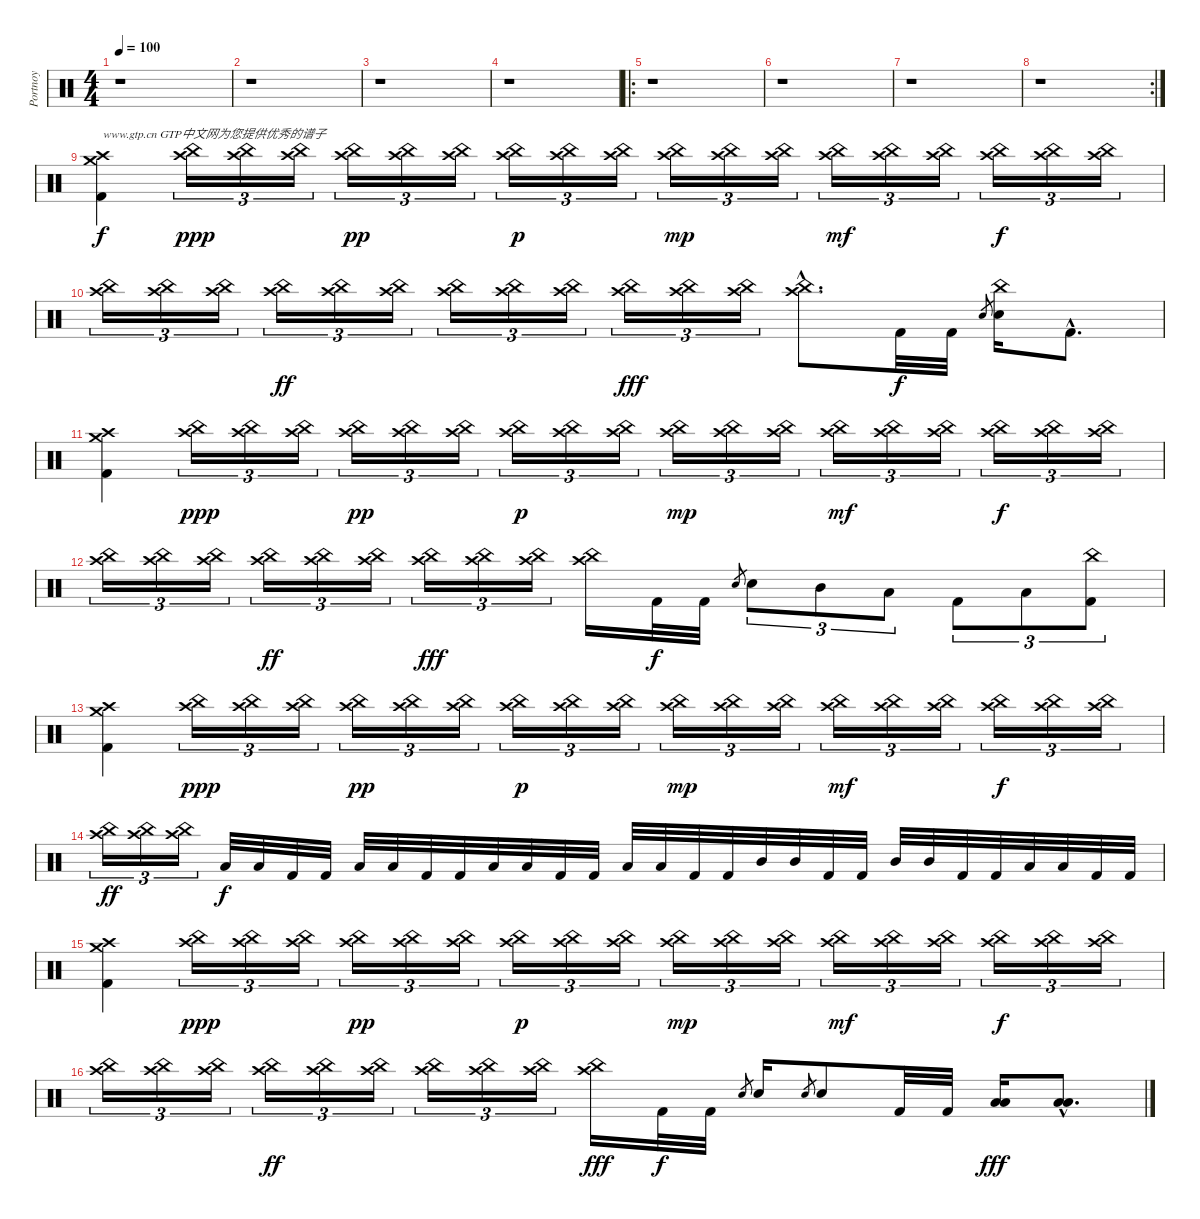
\track ("Portnoy" "Portnoy") {instrument percussion}
\staff {score}
\articulation defaults
\ts (4 4)
\tempo 100
\clef neutral
\ks c
r.1{dy f} |
r.1 |
r.1 |
r.1 |
\ro
r.1 |
r.1 |
r.1 |
\rc 2
r.1 |
("Crash high (hit)" "Crash medium (hit)" "Kick (hit) 2").4{txt "www.gtp.cn GTP中文网为您提供优秀的谱子"} ("Crash high (hit)" "China (hit)").16{tu (3 2) dy ppp} ("Crash high (hit)" "China (hit)").16{tu (3 2)} ("Crash high (hit)" "China (hit)").16{tu (3 2)} ("Crash high (hit)" "China (hit)").16{tu (3 2) dy pp} ("Crash high (hit)" "China (hit)").16{tu (3 2)} ("Crash high (hit)" "China (hit)").16{tu (3 2)} ("Crash high (hit)" "China (hit)").16{tu (3 2) dy p} ("Crash high (hit)" "China (hit)").16{tu (3 2)} ("Crash high (hit)" "China (hit)").16{tu (3 2)} ("Crash high (hit)" "China (hit)").16{tu (3 2) dy mp} ("Crash high (hit)" "China (hit)").16{tu (3 2)} ("Crash high (hit)" "China (hit)").16{tu (3 2)} ("Crash high (hit)" "China (hit)").16{tu (3 2) dy mf} ("Crash high (hit)" "China (hit)").16{tu (3 2)} ("Crash high (hit)" "China (hit)").16{tu (3 2)} ("Crash high (hit)" "China (hit)").16{tu (3 2) dy f} ("Crash high (hit)" "China (hit)").16{tu (3 2)} ("Crash high (hit)" "China (hit)").16{tu (3 2)} |
("Crash high (hit)" "China (hit)").16{tu (3 2)} ("Crash high (hit)" "China (hit)").16{tu (3 2)} ("Crash high (hit)" "China (hit)").16{tu (3 2)} ("Crash high (hit)" "China (hit)").16{tu (3 2) dy ff} ("Crash high (hit)" "China (hit)").16{tu (3 2)} ("Crash high (hit)" "China (hit)").16{tu (3 2)} ("Crash high (hit)" "China (hit)").16{tu (3 2)} ("Crash high (hit)" "China (hit)").16{tu (3 2)} ("Crash high (hit)" "China (hit)").16{tu (3 2)} ("Crash high (hit)" "China (hit)").16{tu (3 2) dy fff} ("Crash high (hit)" "China (hit)").16{tu (3 2)} ("Crash high (hit)" "China (hit)").16{tu (3 2)} ("Crash high (hit)"{hac} "China (hit)"{hac}).8{d} "Kick (hit) 2".32{dy f} "Kick (hit) 2".32 "Electric Snare (hit)".8{gr} ("China (hit)" "Electric Snare (hit)").16 "Kick (hit) 2"{hac}.8{d} |
("Crash high (hit)" "Crash medium (hit)" "Kick (hit) 2").4 ("Crash high (hit)" "China (hit)").16{tu (3 2) dy ppp} ("Crash high (hit)" "China (hit)").16{tu (3 2)} ("Crash high (hit)" "China (hit)").16{tu (3 2)} ("Crash high (hit)" "China (hit)").16{tu (3 2) dy pp} ("Crash high (hit)" "China (hit)").16{tu (3 2)} ("Crash high (hit)" "China (hit)").16{tu (3 2)} ("Crash high (hit)" "China (hit)").16{tu (3 2) dy p} ("Crash high (hit)" "China (hit)").16{tu (3 2)} ("Crash high (hit)" "China (hit)").16{tu (3 2)} ("Crash high (hit)" "China (hit)").16{tu (3 2) dy mp} ("Crash high (hit)" "China (hit)").16{tu (3 2)} ("Crash high (hit)" "China (hit)").16{tu (3 2)} ("Crash high (hit)" "China (hit)").16{tu (3 2) dy mf} ("Crash high (hit)" "China (hit)").16{tu (3 2)} ("Crash high (hit)" "China (hit)").16{tu (3 2)} ("Crash high (hit)" "China (hit)").16{tu (3 2) dy f} ("Crash high (hit)" "China (hit)").16{tu (3 2)} ("Crash high (hit)" "China (hit)").16{tu (3 2)} |
("Crash high (hit)" "China (hit)").16{tu (3 2)} ("Crash high (hit)" "China (hit)").16{tu (3 2)} ("Crash high (hit)" "China (hit)").16{tu (3 2)} ("Crash high (hit)" "China (hit)").16{tu (3 2) dy ff} ("Crash high (hit)" "China (hit)").16{tu (3 2)} ("Crash high (hit)" "China (hit)").16{tu (3 2)} ("Crash high (hit)" "China (hit)").16{tu (3 2) dy fff} ("Crash high (hit)" "China (hit)").16{tu (3 2)} ("Crash high (hit)" "China (hit)").16{tu (3 2)} ("Crash high (hit)" "China (hit)").16 "Kick (hit) 2".32{dy f} "Kick (hit) 2".32 "Electric Snare (hit)".8{gr} "Electric Snare (hit)".8{tu (3 2)} "Mid Tom (hit)".8{tu (3 2)} "Low Tom (hit)".8{tu (3 2)} "Kick (hit) 2".8{tu (3 2)} "Low Tom (hit)".8{tu (3 2)} ("China (hit)" "Kick (hit) 2").8{tu (3 2)} |
("Crash high (hit)" "Crash medium (hit)" "Kick (hit) 2").4 ("Crash high (hit)" "China (hit)").16{tu (3 2) dy ppp} ("Crash high (hit)" "China (hit)").16{tu (3 2)} ("Crash high (hit)" "China (hit)").16{tu (3 2)} ("Crash high (hit)" "China (hit)").16{tu (3 2) dy pp} ("Crash high (hit)" "China (hit)").16{tu (3 2)} ("Crash high (hit)" "China (hit)").16{tu (3 2)} ("Crash high (hit)" "China (hit)").16{tu (3 2) dy p} ("Crash high (hit)" "China (hit)").16{tu (3 2)} ("Crash high (hit)" "China (hit)").16{tu (3 2)} ("Crash high (hit)" "China (hit)").16{tu (3 2) dy mp} ("Crash high (hit)" "China (hit)").16{tu (3 2)} ("Crash high (hit)" "China (hit)").16{tu (3 2)} ("Crash high (hit)" "China (hit)").16{tu (3 2) dy mf} ("Crash high (hit)" "China (hit)").16{tu (3 2)} ("Crash high (hit)" "China (hit)").16{tu (3 2)} ("Crash high (hit)" "China (hit)").16{tu (3 2) dy f} ("Crash high (hit)" "China (hit)").16{tu (3 2)} ("Crash high (hit)" "China (hit)").16{tu (3 2)} |
("Crash high (hit)" "China (hit)").16{tu (3 2) dy ff} ("Crash high (hit)" "China (hit)").16{tu (3 2)} ("Crash high (hit)" "China (hit)").16{tu (3 2)} "Low Floor Tom (hit)".32{dy f} "Low Floor Tom (hit)".32 "Kick (hit) 2".32 "Kick (hit) 2".32 "Low Floor Tom (hit)".32 "Low Floor Tom (hit)".32 "Kick (hit) 2".32 "Kick (hit) 2".32 "Low Tom (hit)".32 "Low Tom (hit)".32 "Kick (hit) 2".32 "Kick (hit) 2".32 "Low Tom (hit)".32 "Low Tom (hit)".32 "Kick (hit) 2".32 "Kick (hit) 2".32 "Mid Tom (hit)".32 "Mid Tom (hit)".32 "Kick (hit) 2".32 "Kick (hit) 2".32 "Mid Tom (hit)".32 "Mid Tom (hit)".32 "Kick (hit) 2".32 "Kick (hit) 2".32 "Low Floor Tom (hit)".32 "Low Floor Tom (hit)".32 "Kick (hit) 2".32 "Kick (hit) 2".32 |
("Crash high (hit)" "Crash medium (hit)" "Kick (hit) 2").4 ("Crash high (hit)" "China (hit)").16{tu (3 2) dy ppp} ("Crash high (hit)" "China (hit)").16{tu (3 2)} ("Crash high (hit)" "China (hit)").16{tu (3 2)} ("Crash high (hit)" "China (hit)").16{tu (3 2) dy pp} ("Crash high (hit)" "China (hit)").16{tu (3 2)} ("Crash high (hit)" "China (hit)").16{tu (3 2)} ("Crash high (hit)" "China (hit)").16{tu (3 2) dy p} ("Crash high (hit)" "China (hit)").16{tu (3 2)} ("Crash high (hit)" "China (hit)").16{tu (3 2)} ("Crash high (hit)" "China (hit)").16{tu (3 2) dy mp} ("Crash high (hit)" "China (hit)").16{tu (3 2)} ("Crash high (hit)" "China (hit)").16{tu (3 2)} ("Crash high (hit)" "China (hit)").16{tu (3 2) dy mf} ("Crash high (hit)" "China (hit)").16{tu (3 2)} ("Crash high (hit)" "China (hit)").16{tu (3 2)} ("Crash high (hit)" "China (hit)").16{tu (3 2) dy f} ("Crash high (hit)" "China (hit)").16{tu (3 2)} ("Crash high (hit)" "China (hit)").16{tu (3 2)} |
("Crash high (hit)" "China (hit)").16{tu (3 2)} ("Crash high (hit)" "China (hit)").16{tu (3 2)} ("Crash high (hit)" "China (hit)").16{tu (3 2)} ("Crash high (hit)" "China (hit)").16{tu (3 2) dy ff} ("Crash high (hit)" "China (hit)").16{tu (3 2)} ("Crash high (hit)" "China (hit)").16{tu (3 2)} ("Crash high (hit)" "China (hit)").16{tu (3 2)} ("Crash high (hit)" "China (hit)").16{tu (3 2)} ("Crash high (hit)" "China (hit)").16{tu (3 2)} ("Crash high (hit)" "China (hit)").16{dy fff} "Kick (hit) 2".32{dy f} "Kick (hit) 2".32 "Electric Snare (hit)".8{gr} "Electric Snare (hit)".16 "Electric Snare (hit)".8{gr} "Electric Snare (hit)".8 "Kick (hit) 2".32 "Kick (hit) 2".32 ("Low Tom (hit)" "Low Floor Tom (hit)").16{dy fff} ("Low Tom (hit)"{hac} "Low Floor Tom (hit)"{hac}).8{d}
